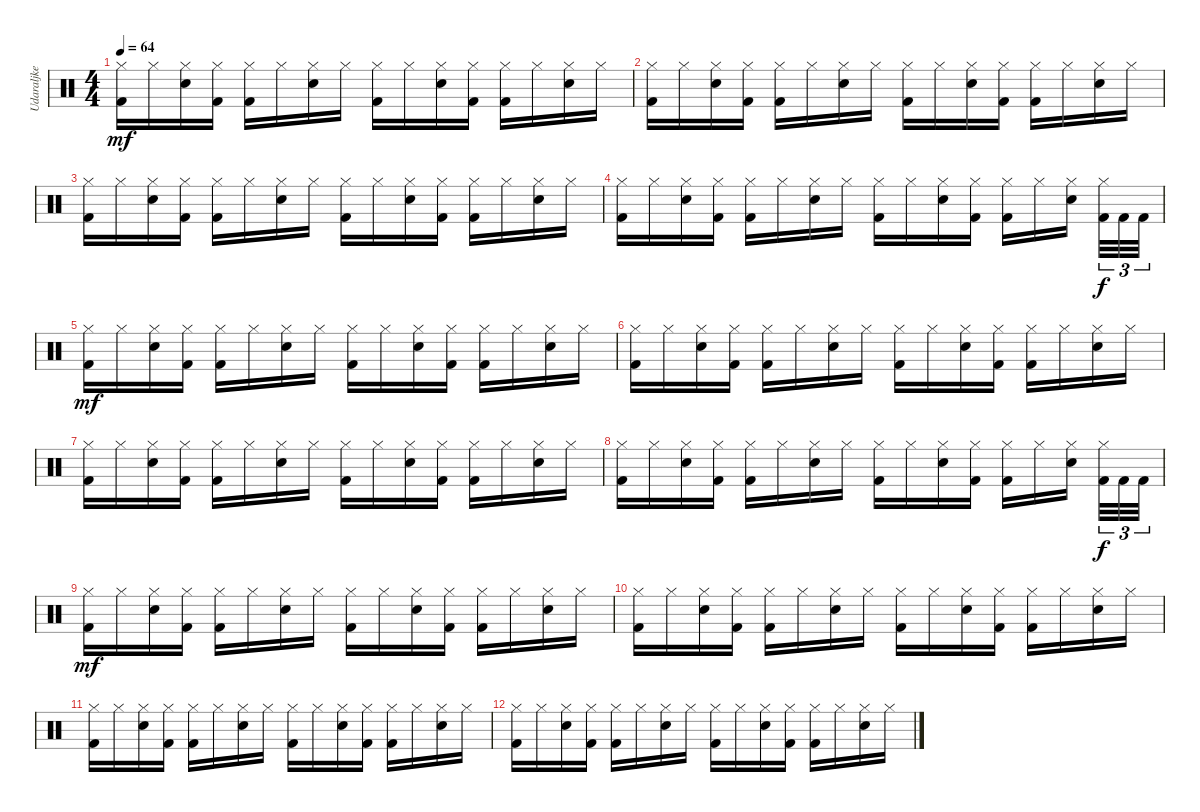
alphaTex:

\track ("Udaraljke" "Udaraljke") {instrument percussion}
\staff {score}
\articulation defaults
\ts (4 4)
\tempo 64
\clef neutral
\ks c
("Kick (hit) 2" "Hi-Hat (closed)").16{dy mf} "Hi-Hat (closed)".16 ("Snare (hit) 2" "Hi-Hat (closed)").16 ("Kick (hit) 2" "Hi-Hat (closed)").16 ("Kick (hit) 2" "Hi-Hat (closed)").16 "Hi-Hat (closed)".16 ("Snare (hit) 2" "Hi-Hat (closed)").16 "Hi-Hat (closed)".16 ("Kick (hit) 2" "Hi-Hat (closed)").16 "Hi-Hat (closed)".16 ("Snare (hit) 2" "Hi-Hat (closed)").16 ("Kick (hit) 2" "Hi-Hat (closed)").16 ("Kick (hit) 2" "Hi-Hat (closed)").16 "Hi-Hat (closed)".16 ("Snare (hit) 2" "Hi-Hat (closed)").16 "Hi-Hat (closed)".16 |
("Kick (hit) 2" "Hi-Hat (closed)").16 "Hi-Hat (closed)".16 ("Snare (hit) 2" "Hi-Hat (closed)").16 ("Kick (hit) 2" "Hi-Hat (closed)").16 ("Kick (hit) 2" "Hi-Hat (closed)").16 "Hi-Hat (closed)".16 ("Snare (hit) 2" "Hi-Hat (closed)").16 "Hi-Hat (closed)".16 ("Kick (hit) 2" "Hi-Hat (closed)").16 "Hi-Hat (closed)".16 ("Snare (hit) 2" "Hi-Hat (closed)").16 ("Kick (hit) 2" "Hi-Hat (closed)").16 ("Kick (hit) 2" "Hi-Hat (closed)").16 "Hi-Hat (closed)".16 ("Snare (hit) 2" "Hi-Hat (closed)").16 "Hi-Hat (closed)".16 |
("Kick (hit) 2" "Hi-Hat (closed)").16 "Hi-Hat (closed)".16 ("Snare (hit) 2" "Hi-Hat (closed)").16 ("Kick (hit) 2" "Hi-Hat (closed)").16 ("Kick (hit) 2" "Hi-Hat (closed)").16 "Hi-Hat (closed)".16 ("Snare (hit) 2" "Hi-Hat (closed)").16 "Hi-Hat (closed)".16 ("Kick (hit) 2" "Hi-Hat (closed)").16 "Hi-Hat (closed)".16 ("Snare (hit) 2" "Hi-Hat (closed)").16 ("Kick (hit) 2" "Hi-Hat (closed)").16 ("Kick (hit) 2" "Hi-Hat (closed)").16 "Hi-Hat (closed)".16 ("Snare (hit) 2" "Hi-Hat (closed)").16 "Hi-Hat (closed)".16 |
("Kick (hit) 2" "Hi-Hat (closed)").16 "Hi-Hat (closed)".16 ("Snare (hit) 2" "Hi-Hat (closed)").16 ("Kick (hit) 2" "Hi-Hat (closed)").16 ("Kick (hit) 2" "Hi-Hat (closed)").16 "Hi-Hat (closed)".16 ("Snare (hit) 2" "Hi-Hat (closed)").16 "Hi-Hat (closed)".16 ("Kick (hit) 2" "Hi-Hat (closed)").16 "Hi-Hat (closed)".16 ("Snare (hit) 2" "Hi-Hat (closed)").16 ("Kick (hit) 2" "Hi-Hat (closed)").16 ("Kick (hit) 2" "Hi-Hat (closed)").16 "Hi-Hat (closed)".16 ("Snare (hit) 2" "Hi-Hat (closed)").16 ("Hi-Hat (closed)" "Kick (hit) 2").32{tu (3 2) dy f} "Kick (hit) 2".32{tu (3 2)} "Kick (hit) 2".32{tu (3 2)} |
("Kick (hit) 2" "Hi-Hat (closed)").16{dy mf} "Hi-Hat (closed)".16 ("Snare (hit) 2" "Hi-Hat (closed)").16 ("Kick (hit) 2" "Hi-Hat (closed)").16 ("Kick (hit) 2" "Hi-Hat (closed)").16 "Hi-Hat (closed)".16 ("Snare (hit) 2" "Hi-Hat (closed)").16 "Hi-Hat (closed)".16 ("Kick (hit) 2" "Hi-Hat (closed)").16 "Hi-Hat (closed)".16 ("Snare (hit) 2" "Hi-Hat (closed)").16 ("Kick (hit) 2" "Hi-Hat (closed)").16 ("Kick (hit) 2" "Hi-Hat (closed)").16 "Hi-Hat (closed)".16 ("Snare (hit) 2" "Hi-Hat (closed)").16 "Hi-Hat (closed)".16 |
("Kick (hit) 2" "Hi-Hat (closed)").16 "Hi-Hat (closed)".16 ("Snare (hit) 2" "Hi-Hat (closed)").16 ("Kick (hit) 2" "Hi-Hat (closed)").16 ("Kick (hit) 2" "Hi-Hat (closed)").16 "Hi-Hat (closed)".16 ("Snare (hit) 2" "Hi-Hat (closed)").16 "Hi-Hat (closed)".16 ("Kick (hit) 2" "Hi-Hat (closed)").16 "Hi-Hat (closed)".16 ("Snare (hit) 2" "Hi-Hat (closed)").16 ("Kick (hit) 2" "Hi-Hat (closed)").16 ("Kick (hit) 2" "Hi-Hat (closed)").16 "Hi-Hat (closed)".16 ("Snare (hit) 2" "Hi-Hat (closed)").16 "Hi-Hat (closed)".16 |
("Kick (hit) 2" "Hi-Hat (closed)").16 "Hi-Hat (closed)".16 ("Snare (hit) 2" "Hi-Hat (closed)").16 ("Kick (hit) 2" "Hi-Hat (closed)").16 ("Kick (hit) 2" "Hi-Hat (closed)").16 "Hi-Hat (closed)".16 ("Snare (hit) 2" "Hi-Hat (closed)").16 "Hi-Hat (closed)".16 ("Kick (hit) 2" "Hi-Hat (closed)").16 "Hi-Hat (closed)".16 ("Snare (hit) 2" "Hi-Hat (closed)").16 ("Kick (hit) 2" "Hi-Hat (closed)").16 ("Kick (hit) 2" "Hi-Hat (closed)").16 "Hi-Hat (closed)".16 ("Snare (hit) 2" "Hi-Hat (closed)").16 "Hi-Hat (closed)".16 |
("Kick (hit) 2" "Hi-Hat (closed)").16 "Hi-Hat (closed)".16 ("Snare (hit) 2" "Hi-Hat (closed)").16 ("Kick (hit) 2" "Hi-Hat (closed)").16 ("Kick (hit) 2" "Hi-Hat (closed)").16 "Hi-Hat (closed)".16 ("Snare (hit) 2" "Hi-Hat (closed)").16 "Hi-Hat (closed)".16 ("Kick (hit) 2" "Hi-Hat (closed)").16 "Hi-Hat (closed)".16 ("Snare (hit) 2" "Hi-Hat (closed)").16 ("Kick (hit) 2" "Hi-Hat (closed)").16 ("Kick (hit) 2" "Hi-Hat (closed)").16 "Hi-Hat (closed)".16 ("Snare (hit) 2" "Hi-Hat (closed)").16 ("Hi-Hat (closed)" "Kick (hit) 2").32{tu (3 2) dy f} "Kick (hit) 2".32{tu (3 2)} "Kick (hit) 2".32{tu (3 2)} |
("Kick (hit) 2" "Hi-Hat (closed)").16{dy mf} "Hi-Hat (closed)".16 ("Snare (hit) 2" "Hi-Hat (closed)").16 ("Kick (hit) 2" "Hi-Hat (closed)").16 ("Kick (hit) 2" "Hi-Hat (closed)").16 "Hi-Hat (closed)".16 ("Snare (hit) 2" "Hi-Hat (closed)").16 "Hi-Hat (closed)".16 ("Kick (hit) 2" "Hi-Hat (closed)").16 "Hi-Hat (closed)".16 ("Snare (hit) 2" "Hi-Hat (closed)").16 ("Kick (hit) 2" "Hi-Hat (closed)").16 ("Kick (hit) 2" "Hi-Hat (closed)").16 "Hi-Hat (closed)".16 ("Snare (hit) 2" "Hi-Hat (closed)").16 "Hi-Hat (closed)".16 |
("Kick (hit) 2" "Hi-Hat (closed)").16 "Hi-Hat (closed)".16 ("Snare (hit) 2" "Hi-Hat (closed)").16 ("Kick (hit) 2" "Hi-Hat (closed)").16 ("Kick (hit) 2" "Hi-Hat (closed)").16 "Hi-Hat (closed)".16 ("Snare (hit) 2" "Hi-Hat (closed)").16 "Hi-Hat (closed)".16 ("Kick (hit) 2" "Hi-Hat (closed)").16 "Hi-Hat (closed)".16 ("Snare (hit) 2" "Hi-Hat (closed)").16 ("Kick (hit) 2" "Hi-Hat (closed)").16 ("Kick (hit) 2" "Hi-Hat (closed)").16 "Hi-Hat (closed)".16 ("Snare (hit) 2" "Hi-Hat (closed)").16 "Hi-Hat (closed)".16 |
("Kick (hit) 2" "Hi-Hat (closed)").16 "Hi-Hat (closed)".16 ("Snare (hit) 2" "Hi-Hat (closed)").16 ("Kick (hit) 2" "Hi-Hat (closed)").16 ("Kick (hit) 2" "Hi-Hat (closed)").16 "Hi-Hat (closed)".16 ("Snare (hit) 2" "Hi-Hat (closed)").16 "Hi-Hat (closed)".16 ("Kick (hit) 2" "Hi-Hat (closed)").16 "Hi-Hat (closed)".16 ("Snare (hit) 2" "Hi-Hat (closed)").16 ("Kick (hit) 2" "Hi-Hat (closed)").16 ("Kick (hit) 2" "Hi-Hat (closed)").16 "Hi-Hat (closed)".16 ("Snare (hit) 2" "Hi-Hat (closed)").16 "Hi-Hat (closed)".16 |
("Kick (hit) 2" "Hi-Hat (closed)").16 "Hi-Hat (closed)".16 ("Snare (hit) 2" "Hi-Hat (closed)").16 ("Kick (hit) 2" "Hi-Hat (closed)").16 ("Kick (hit) 2" "Hi-Hat (closed)").16 "Hi-Hat (closed)".16 ("Snare (hit) 2" "Hi-Hat (closed)").16 "Hi-Hat (closed)".16 ("Kick (hit) 2" "Hi-Hat (closed)").16 "Hi-Hat (closed)".16 ("Snare (hit) 2" "Hi-Hat (closed)").16 ("Kick (hit) 2" "Hi-Hat (closed)").16 ("Kick (hit) 2" "Hi-Hat (closed)").16 "Hi-Hat (closed)".16 ("Snare (hit) 2" "Hi-Hat (closed)").16 "Hi-Hat (closed)".16
